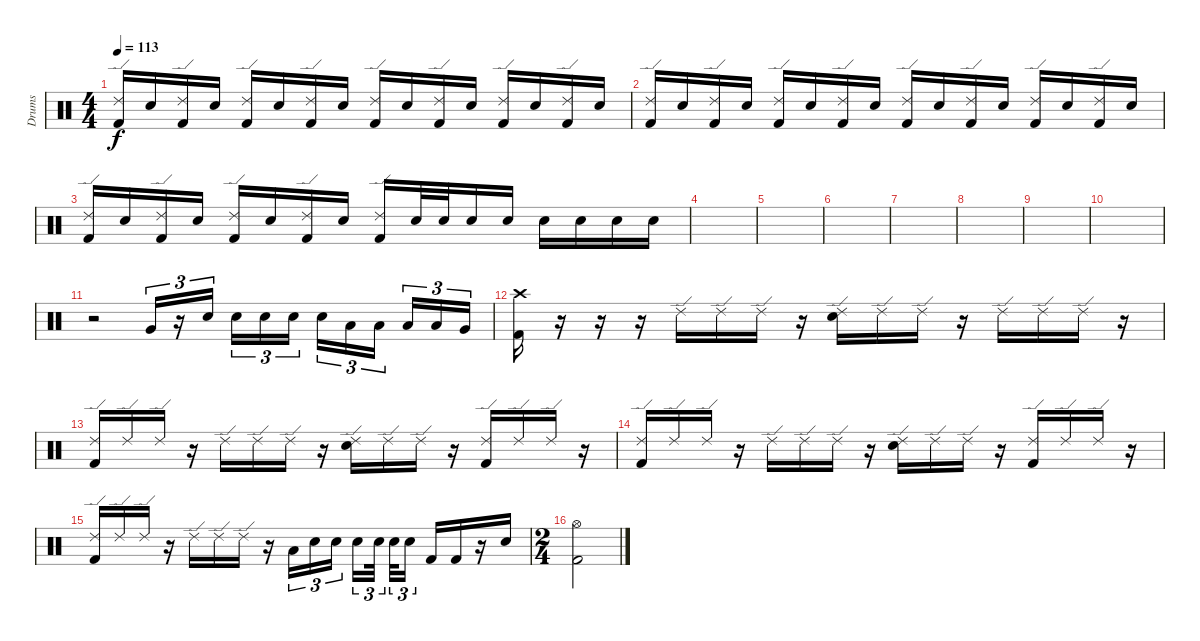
\track ("Drums" "Drums") {instrument percussion}
\staff {score}
\articulation defaults
\ts (4 4)
\tempo 113
\clef neutral
\ks c
("Kick (hit) 2" "Ride (edge) 2").16{dy f} "Electric Snare (hit)".16 ("Kick (hit) 2" "Ride (edge) 2").16 "Electric Snare (hit)".16 ("Kick (hit) 2" "Ride (edge) 2").16 "Electric Snare (hit)".16 ("Kick (hit) 2" "Ride (edge) 2").16 "Electric Snare (hit)".16 ("Kick (hit) 2" "Ride (edge) 2").16 "Electric Snare (hit)".16 ("Kick (hit) 2" "Ride (edge) 2").16 "Electric Snare (hit)".16 ("Kick (hit) 2" "Ride (edge) 2").16 "Electric Snare (hit)".16 ("Kick (hit) 2" "Ride (edge) 2").16 "Electric Snare (hit)".16 |
("Kick (hit) 2" "Ride (edge) 2").16 "Electric Snare (hit)".16 ("Kick (hit) 2" "Ride (edge) 2").16 "Electric Snare (hit)".16 ("Kick (hit) 2" "Ride (edge) 2").16 "Electric Snare (hit)".16 ("Kick (hit) 2" "Ride (edge) 2").16 "Electric Snare (hit)".16 ("Kick (hit) 2" "Ride (edge) 2").16 "Electric Snare (hit)".16 ("Kick (hit) 2" "Ride (edge) 2").16 "Electric Snare (hit)".16 ("Kick (hit) 2" "Ride (edge) 2").16 "Electric Snare (hit)".16 ("Kick (hit) 2" "Ride (edge) 2").16 "Electric Snare (hit)".16 |
("Kick (hit) 2" "Ride (edge) 2").16 "Electric Snare (hit)".16 ("Kick (hit) 2" "Ride (edge) 2").16 "Electric Snare (hit)".16 ("Kick (hit) 2" "Ride (edge) 2").16 "Electric Snare (hit)".16 ("Kick (hit) 2" "Ride (edge) 2").16 "Electric Snare (hit)".16 ("Kick (hit) 2" "Ride (edge) 2").16 "Electric Snare (hit)".32 "Electric Snare (hit)".32 "Electric Snare (hit)".16 "Electric Snare (hit)".16 "Electric Snare (hit)".16 "Electric Snare (hit)".16 "Electric Snare (hit)".16 "Electric Snare (hit)".16 |
|
|
|
|
|
|
|
r.2 "Very Low Tom (hit)".16{tu (3 2)} r.16{tu (3 2)} "Electric Snare (hit)".16{tu (3 2)} "Electric Snare (hit)".16{tu (3 2)} "Electric Snare (hit)".16{tu (3 2)} "Electric Snare (hit)".16{tu (3 2)} "Electric Snare (hit)".16{tu (3 2)} "Low Tom (hit)".16{tu (3 2)} "Low Tom (hit)".16{tu (3 2)} "Low Tom (hit)".16{tu (3 2)} "Low Tom (hit)".16{tu (3 2)} "Very Low Tom (hit)".16{tu (3 2)} |
("Kick (hit) 2" "Crash high (hit)").16 r.16 r.16 r.16 "Ride (edge) 2".16 "Ride (edge) 2".16 "Ride (edge) 2".16 r.16 ("Electric Snare (hit)" "Ride (edge) 2").16 "Ride (edge) 2".16 "Ride (edge) 2".16 r.16 "Ride (edge) 2".16 "Ride (edge) 2".16 "Ride (edge) 2".16 r.16 |
("Kick (hit) 2" "Ride (edge) 2").16 "Ride (edge) 2".16 "Ride (edge) 2".16 r.16 "Ride (edge) 2".16 "Ride (edge) 2".16 "Ride (edge) 2".16 r.16 ("Electric Snare (hit)" "Ride (edge) 2").16 "Ride (edge) 2".16 "Ride (edge) 2".16 r.16 ("Kick (hit) 2" "Ride (edge) 2").16 "Ride (edge) 2".16 "Ride (edge) 2".16 r.16 |
("Kick (hit) 2" "Ride (edge) 2").16 "Ride (edge) 2".16 "Ride (edge) 2".16 r.16 "Ride (edge) 2".16 "Ride (edge) 2".16 "Ride (edge) 2".16 r.16 ("Electric Snare (hit)" "Ride (edge) 2").16 "Ride (edge) 2".16 "Ride (edge) 2".16 r.16 ("Kick (hit) 2" "Ride (edge) 2").16 "Ride (edge) 2".16 "Ride (edge) 2".16 r.16 |
("Kick (hit) 2" "Ride (edge) 2").16 "Ride (edge) 2".16 "Ride (edge) 2".16 r.16 "Ride (edge) 2".16 "Ride (edge) 2".16 "Ride (edge) 2".16 r.16 "Low Tom (hit)".16{tu (3 2)} "Electric Snare (hit)".16{tu (3 2)} "Electric Snare (hit)".16{tu (3 2)} "Electric Snare (hit)".16{tu (3 2)} "Electric Snare (hit)".32{tu (3 2)} "Electric Snare (hit)".32{tu (3 2)} "Electric Snare (hit)".16{tu (3 2)} "Kick (hit) 2".16 "Kick (hit) 2".16 r.16 "Electric Snare (hit)".16 |
\ts (2 4)
("Kick (hit) 2" "Hi-Hat (open)").2
